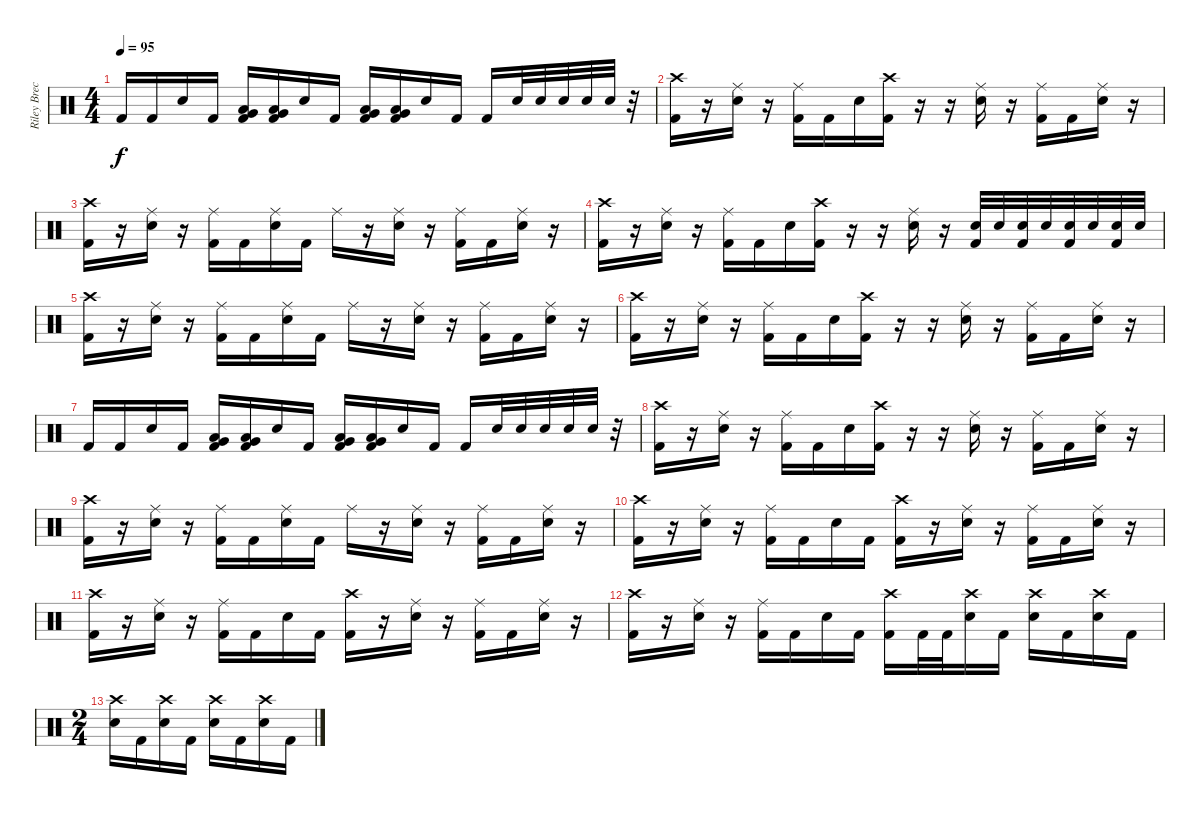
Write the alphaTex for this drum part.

\track ("Riley Breckenridge" "Riley Brec") {instrument percussion}
\staff {score}
\articulation defaults
\ts (4 4)
\tempo 95
\clef neutral
\ks c "Kick (hit) 2".16{dy f} "Kick (hit) 2".16 "Electric Snare (hit)".16 "Kick (hit) 2".16
("Kick (hit) 2" "Very Low Tom (hit)" "Low Floor Tom (hit)").16 ("Kick (hit) 2" "Very Low Tom (hit)" "Low Floor Tom (hit)").16 "Electric Snare (hit)".16 "Kick (hit) 2".16 ("Kick (hit) 2" "Very Low Tom (hit)" "Low Floor Tom (hit)").16 ("Kick (hit) 2" "Very Low Tom (hit)" "Low Floor Tom (hit)").16 "Electric Snare (hit)".16 "Kick (hit) 2".16 "Kick (hit) 2".16 "Electric Snare (hit)".32 "Electric Snare (hit)".32 "Electric Snare (hit)".32 "Electric Snare (hit)".32 "Electric Snare (hit)".32 r.32 |
("Kick (hit) 2" "Crash high (hit)").16 r.16 ("Electric Snare (hit)" "Ride (middle)").16 r.16 ("Kick (hit) 2" "Ride (middle)").16 "Kick (hit) 2".16 "Electric Snare (hit)".16 ("Kick (hit) 2" "Crash high (hit)").16 r.16 r.16 ("Electric Snare (hit)" "Ride (middle)").16 r.16 ("Kick (hit) 2" "Ride (middle)").16 "Kick (hit) 2".16 ("Electric Snare (hit)" "Ride (middle)").16 r.16 |
("Kick (hit) 2" "Crash high (hit)").16 r.16 ("Electric Snare (hit)" "Ride (middle)").16 r.16 ("Kick (hit) 2" "Ride (middle)").16 "Kick (hit) 2".16 ("Electric Snare (hit)" "Ride (middle)").16 "Kick (hit) 2".16 "Ride (middle)".16 r.16 ("Electric Snare (hit)" "Ride (middle)").16 r.16 ("Kick (hit) 2" "Ride (middle)").16 "Kick (hit) 2".16 ("Electric Snare (hit)" "Ride (middle)").16 r.16 |
("Kick (hit) 2" "Crash high (hit)").16 r.16 ("Electric Snare (hit)" "Ride (middle)").16 r.16 ("Kick (hit) 2" "Ride (middle)").16 "Kick (hit) 2".16 "Electric Snare (hit)".16 ("Kick (hit) 2" "Crash high (hit)").16 r.16 r.16 ("Electric Snare (hit)" "Ride (middle)").16 r.16 ("Kick (hit) 2" "Electric Snare (hit)").32 "Electric Snare (hit)".32 ("Kick (hit) 2" "Electric Snare (hit)").32 "Electric Snare (hit)".32 ("Kick (hit) 2" "Electric Snare (hit)").32 "Electric Snare (hit)".32 ("Kick (hit) 2" "Electric Snare (hit)").32 "Electric Snare (hit)".32 |
("Kick (hit) 2" "Crash high (hit)").16 r.16 ("Electric Snare (hit)" "Ride (middle)").16 r.16 ("Kick (hit) 2" "Ride (middle)").16 "Kick (hit) 2".16 ("Electric Snare (hit)" "Ride (middle)").16 "Kick (hit) 2".16 "Ride (middle)".16 r.16 ("Electric Snare (hit)" "Ride (middle)").16 r.16 ("Kick (hit) 2" "Ride (middle)").16 "Kick (hit) 2".16 ("Electric Snare (hit)" "Ride (middle)").16 r.16 |
("Kick (hit) 2" "Crash high (hit)").16 r.16 ("Electric Snare (hit)" "Ride (middle)").16 r.16 ("Kick (hit) 2" "Ride (middle)").16 "Kick (hit) 2".16 "Electric Snare (hit)".16 ("Kick (hit) 2" "Crash high (hit)").16 r.16 r.16 ("Electric Snare (hit)" "Ride (middle)").16 r.16 ("Kick (hit) 2" "Ride (middle)").16 "Kick (hit) 2".16 ("Electric Snare (hit)" "Ride (middle)").16 r.16 |
"Kick (hit) 2".16 "Kick (hit) 2".16 "Electric Snare (hit)".16 "Kick (hit) 2".16 ("Kick (hit) 2" "Very Low Tom (hit)" "Low Floor Tom (hit)").16 ("Kick (hit) 2" "Very Low Tom (hit)" "Low Floor Tom (hit)").16 "Electric Snare (hit)".16 "Kick (hit) 2".16 ("Kick (hit) 2" "Very Low Tom (hit)" "Low Floor Tom (hit)").16 ("Kick (hit) 2" "Very Low Tom (hit)" "Low Floor Tom (hit)").16 "Electric Snare (hit)".16 "Kick (hit) 2".16 "Kick (hit) 2".16 "Electric Snare (hit)".32 "Electric Snare (hit)".32 "Electric Snare (hit)".32 "Electric Snare (hit)".32 "Electric Snare (hit)".32 r.32 |
("Kick (hit) 2" "Crash high (hit)").16 r.16 ("Electric Snare (hit)" "Ride (middle)").16 r.16 ("Kick (hit) 2" "Ride (middle)").16 "Kick (hit) 2".16 "Electric Snare (hit)".16 ("Kick (hit) 2" "Crash high (hit)").16 r.16 r.16 ("Electric Snare (hit)" "Ride (middle)").16 r.16 ("Kick (hit) 2" "Ride (middle)").16 "Kick (hit) 2".16 ("Electric Snare (hit)" "Ride (middle)").16 r.16 |
("Kick (hit) 2" "Crash high (hit)").16 r.16 ("Electric Snare (hit)" "Ride (middle)").16 r.16 ("Kick (hit) 2" "Ride (middle)").16 "Kick (hit) 2".16 ("Electric Snare (hit)" "Ride (middle)").16 "Kick (hit) 2".16 "Ride (middle)".16 r.16 ("Electric Snare (hit)" "Ride (middle)").16 r.16 ("Kick (hit) 2" "Ride (middle)").16 "Kick (hit) 2".16 ("Electric Snare (hit)" "Ride (middle)").16 r.16 |
("Kick (hit) 2" "Crash high (hit)").16 r.16 ("Electric Snare (hit)" "Ride (middle)").16 r.16 ("Kick (hit) 2" "Ride (middle)").16 "Kick (hit) 2".16 "Electric Snare (hit)".16 "Kick (hit) 2".16 ("Kick (hit) 2" "Crash high (hit)").16 r.16 ("Electric Snare (hit)" "Ride (middle)").16 r.16 ("Kick (hit) 2" "Ride (middle)").16 "Kick (hit) 2".16 ("Electric Snare (hit)" "Ride (middle)").16 r.16 |
("Kick (hit) 2" "Crash high (hit)").16 r.16 ("Electric Snare (hit)" "Ride (middle)").16 r.16 ("Kick (hit) 2" "Ride (middle)").16 "Kick (hit) 2".16 "Electric Snare (hit)".16 "Kick (hit) 2".16 ("Kick (hit) 2" "Crash high (hit)").16 r.16 ("Electric Snare (hit)" "Ride (middle)").16 r.16 ("Kick (hit) 2" "Ride (middle)").16 "Kick (hit) 2".16 ("Electric Snare (hit)" "Ride (middle)").16 r.16 |
("Kick (hit) 2" "Crash high (hit)").16 r.16 ("Electric Snare (hit)" "Ride (middle)").16 r.16 ("Kick (hit) 2" "Ride (middle)").16 "Kick (hit) 2".16 "Electric Snare (hit)".16 "Kick (hit) 2".16 ("Kick (hit) 2" "Crash high (hit)").16 "Kick (hit) 2".32 "Kick (hit) 2".32 ("Electric Snare (hit)" "Crash high (hit)").16 "Kick (hit) 2".16 ("Electric Snare (hit)" "Crash high (hit)").16 "Kick (hit) 2".16 ("Electric Snare (hit)" "Crash high (hit)").16 "Kick (hit) 2".16 |
\ts (2 4)
("Electric Snare (hit)" "Crash high (hit)").16 "Kick (hit) 2".16 ("Electric Snare (hit)" "Crash high (hit)").16 "Kick (hit) 2".16 ("Electric Snare (hit)" "Crash high (hit)").16 "Kick (hit) 2".16 ("Electric Snare (hit)" "Crash high (hit)").16 "Kick (hit) 2".16
